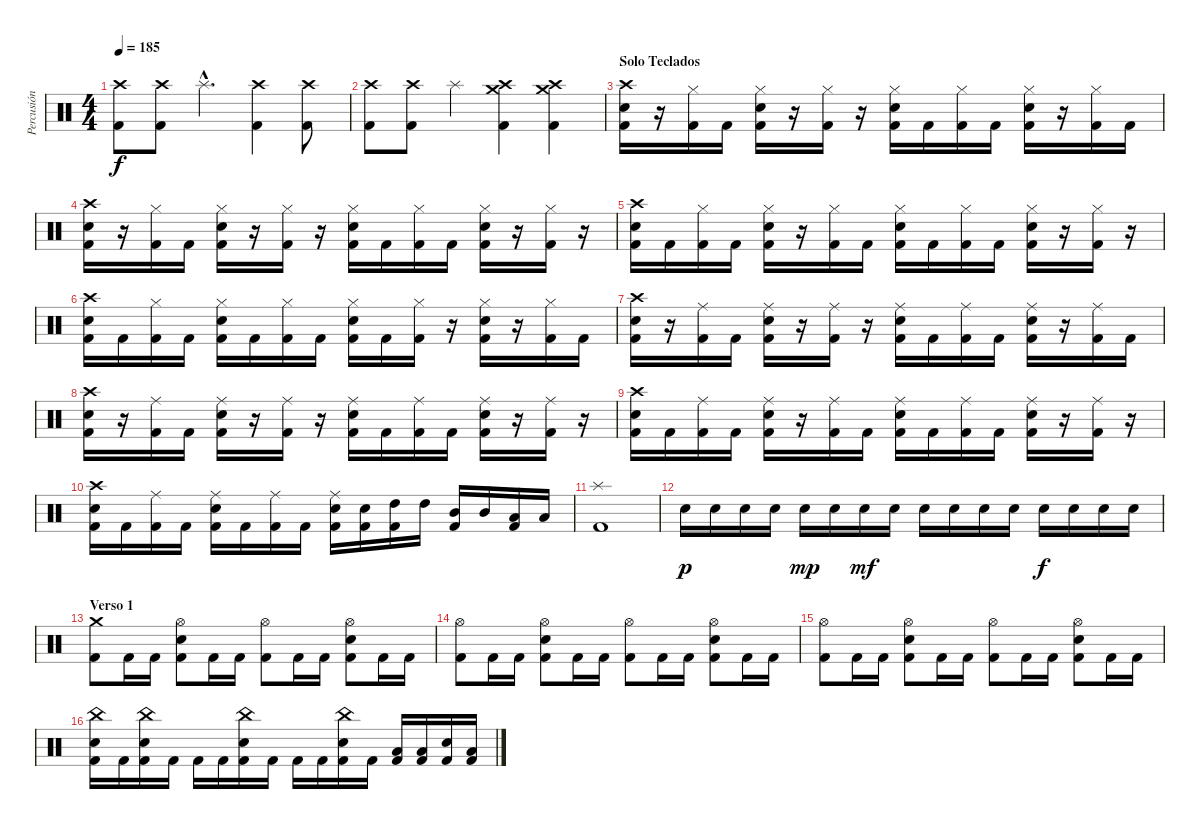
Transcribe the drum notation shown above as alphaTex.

\track ("Percusión" "Percusión") {instrument percussion}
\staff {score}
\articulation defaults
\ts (4 4)
\tempo 185
\clef neutral
\ks c
("Crash high (hit)" "Kick (hit) 2").8{dy f} ("Crash high (hit)" "Kick (hit) 2").8 "Splash (hit)"{hac}.4{d} ("Crash high (hit)" "Kick (hit) 2").4 ("Crash high (hit)" "Kick (hit) 2").8 |
("Crash high (hit)" "Kick (hit) 2").8 ("Crash high (hit)" "Kick (hit) 2").8 "Splash (hit)".4 ("Crash medium (hit)" "Crash high (hit)" "Kick (hit) 2").4 ("Crash medium (hit)" "Crash high (hit)" "Kick (hit) 2").4 |
\section ("" "Solo Teclados")
("Crash high (hit)" "Snare (hit) 2" "Kick (hit) 2").16 r.16 ("Hi-Hat (closed)" "Kick (hit) 2").16 "Kick (hit) 2".16 ("Hi-Hat (closed)" "Snare (hit) 2" "Kick (hit) 2").16 r.16 ("Hi-Hat (closed)" "Kick (hit) 2").16 r.16 ("Hi-Hat (closed)" "Snare (hit) 2" "Kick (hit) 2").16 "Kick (hit) 2".16 ("Hi-Hat (closed)" "Kick (hit) 2").16 "Kick (hit) 2".16 ("Hi-Hat (closed)" "Snare (hit) 2" "Kick (hit) 2").16 r.16 ("Hi-Hat (closed)" "Kick (hit) 2").16 "Kick (hit) 2".16 |
("Crash high (hit)" "Snare (hit) 2" "Kick (hit) 2").16 r.16 ("Hi-Hat (closed)" "Kick (hit) 2").16 "Kick (hit) 2".16 ("Hi-Hat (closed)" "Snare (hit) 2" "Kick (hit) 2").16 r.16 ("Hi-Hat (closed)" "Kick (hit) 2").16 r.16 ("Hi-Hat (closed)" "Snare (hit) 2" "Kick (hit) 2").16 "Kick (hit) 2".16 ("Hi-Hat (closed)" "Kick (hit) 2").16 "Kick (hit) 2".16 ("Hi-Hat (closed)" "Snare (hit) 2" "Kick (hit) 2").16 r.16 ("Hi-Hat (closed)" "Kick (hit) 2").16 r.16 |
("Crash high (hit)" "Snare (hit) 2" "Kick (hit) 2").16 "Kick (hit) 2".16 ("Hi-Hat (closed)" "Kick (hit) 2").16 "Kick (hit) 2".16 ("Hi-Hat (closed)" "Snare (hit) 2" "Kick (hit) 2").16 r.16 ("Hi-Hat (closed)" "Kick (hit) 2").16 "Kick (hit) 2".16 ("Hi-Hat (closed)" "Snare (hit) 2" "Kick (hit) 2").16 "Kick (hit) 2".16 ("Hi-Hat (closed)" "Kick (hit) 2").16 "Kick (hit) 2".16 ("Hi-Hat (closed)" "Snare (hit) 2" "Kick (hit) 2").16 r.16 ("Hi-Hat (closed)" "Kick (hit) 2").16 r.16 |
("Crash high (hit)" "Snare (hit) 2" "Kick (hit) 2").16 "Kick (hit) 2".16 ("Hi-Hat (closed)" "Kick (hit) 2").16 "Kick (hit) 2".16 ("Hi-Hat (closed)" "Snare (hit) 2" "Kick (hit) 2").16 "Kick (hit) 2".16 ("Hi-Hat (closed)" "Kick (hit) 2").16 "Kick (hit) 2".16 ("Hi-Hat (closed)" "Snare (hit) 2" "Kick (hit) 2").16 "Kick (hit) 2".16 ("Hi-Hat (closed)" "Kick (hit) 2").16 r.16 ("Hi-Hat (closed)" "Snare (hit) 2" "Kick (hit) 2").16 r.16 ("Hi-Hat (closed)" "Kick (hit) 2").16 "Kick (hit) 2".16 |
("Crash high (hit)" "Snare (hit) 2" "Kick (hit) 2").16 r.16 ("Ride (middle)" "Kick (hit) 2").16 "Kick (hit) 2".16 ("Ride (middle)" "Snare (hit) 2" "Kick (hit) 2").16 r.16 ("Ride (middle)" "Kick (hit) 2").16 r.16 ("Ride (middle)" "Snare (hit) 2" "Kick (hit) 2").16 "Kick (hit) 2".16 ("Ride (middle)" "Kick (hit) 2").16 "Kick (hit) 2".16 ("Ride (middle)" "Snare (hit) 2" "Kick (hit) 2").16 r.16 ("Ride (middle)" "Kick (hit) 2").16 "Kick (hit) 2".16 |
("Crash high (hit)" "Snare (hit) 2" "Kick (hit) 2").16 r.16 ("Ride (middle)" "Kick (hit) 2").16 "Kick (hit) 2".16 ("Ride (middle)" "Snare (hit) 2" "Kick (hit) 2").16 r.16 ("Ride (middle)" "Kick (hit) 2").16 r.16 ("Ride (middle)" "Snare (hit) 2" "Kick (hit) 2").16 "Kick (hit) 2".16 ("Ride (middle)" "Kick (hit) 2").16 "Kick (hit) 2".16 ("Ride (middle)" "Snare (hit) 2" "Kick (hit) 2").16 r.16 ("Ride (middle)" "Kick (hit) 2").16 r.16 |
("Crash high (hit)" "Snare (hit) 2" "Kick (hit) 2").16 "Kick (hit) 2".16 ("Ride (middle)" "Kick (hit) 2").16 "Kick (hit) 2".16 ("Ride (middle)" "Snare (hit) 2" "Kick (hit) 2").16 r.16 ("Ride (middle)" "Kick (hit) 2").16 "Kick (hit) 2".16 ("Ride (middle)" "Snare (hit) 2" "Kick (hit) 2").16 "Kick (hit) 2".16 ("Ride (middle)" "Kick (hit) 2").16 "Kick (hit) 2".16 ("Ride (middle)" "Snare (hit) 2" "Kick (hit) 2").16 r.16 ("Ride (middle)" "Kick (hit) 2").16 r.16 |
("Crash high (hit)" "Snare (hit) 2" "Kick (hit) 2").16 "Kick (hit) 2".16 ("Ride (middle)" "Kick (hit) 2").16 "Kick (hit) 2".16 ("Ride (middle)" "Snare (hit) 2" "Kick (hit) 2").16 "Kick (hit) 2".16 ("Ride (middle)" "Kick (hit) 2").16 "Kick (hit) 2".16 ("Ride (middle)" "Snare (hit) 2" "Kick (hit) 2").16 ("Snare (hit) 2" "Kick (hit) 2").16 ("High Tom (hit)" "Kick (hit) 2").16 "High Tom (hit)".16 ("Mid Tom (hit)" "Kick (hit) 2").16 "Mid Tom (hit)".16 ("Low Tom (hit)" "Kick (hit) 2").16 "Low Tom (hit)".16 |
("Splash (hit)" "Kick (hit) 2").1 |
"Snare (hit) 2".16{dy p} "Snare (hit) 2".16 "Snare (hit) 2".16 "Snare (hit) 2".16 "Snare (hit) 2".16{dy mp} "Snare (hit) 2".16 "Snare (hit) 2".16{dy mf} "Snare (hit) 2".16 "Snare (hit) 2".16 "Snare (hit) 2".16 "Snare (hit) 2".16 "Snare (hit) 2".16 "Snare (hit) 2".16{dy f} "Snare (hit) 2".16 "Snare (hit) 2".16 "Snare (hit) 2".16 |
\section ("" "Verso 1")
("Crash medium (hit)" "Kick (hit) 2").8 "Kick (hit) 2".16 "Kick (hit) 2".16 ("Hi-Hat (open)" "Snare (hit) 2" "Kick (hit) 2").8 "Kick (hit) 2".16 "Kick (hit) 2".16 ("Hi-Hat (open)" "Kick (hit) 2").8 "Kick (hit) 2".16 "Kick (hit) 2".16 ("Hi-Hat (open)" "Snare (hit) 2" "Kick (hit) 2").8 "Kick (hit) 2".16 "Kick (hit) 2".16 |
("Hi-Hat (open)" "Kick (hit) 2").8 "Kick (hit) 2".16 "Kick (hit) 2".16 ("Hi-Hat (open)" "Snare (hit) 2" "Kick (hit) 2").8 "Kick (hit) 2".16 "Kick (hit) 2".16 ("Hi-Hat (open)" "Kick (hit) 2").8 "Kick (hit) 2".16 "Kick (hit) 2".16 ("Hi-Hat (open)" "Snare (hit) 2" "Kick (hit) 2").8 "Kick (hit) 2".16 "Kick (hit) 2".16 |
("Hi-Hat (open)" "Kick (hit) 2").8 "Kick (hit) 2".16 "Kick (hit) 2".16 ("Hi-Hat (open)" "Snare (hit) 2" "Kick (hit) 2").8 "Kick (hit) 2".16 "Kick (hit) 2".16 ("Hi-Hat (open)" "Kick (hit) 2").8 "Kick (hit) 2".16 "Kick (hit) 2".16 ("Hi-Hat (open)" "Snare (hit) 2" "Kick (hit) 2").8 "Kick (hit) 2".16 "Kick (hit) 2".16 |
("China (hit)" "Snare (hit) 2" "Kick (hit) 2").16 "Kick (hit) 2".16 ("China (hit)" "Snare (hit) 2" "Kick (hit) 2").16 "Kick (hit) 2".16 "Kick (hit) 2".16 "Kick (hit) 2".16 ("China (hit)" "Snare (hit) 2" "Kick (hit) 2").16 "Kick (hit) 2".16 "Kick (hit) 2".16 "Kick (hit) 2".16 ("China (hit)" "Snare (hit) 2" "Kick (hit) 2").16 "Kick (hit) 2".16 ("Low Tom (hit)" "Kick (hit) 2").16 ("Low Tom (hit)" "Kick (hit) 2").16 ("Snare (hit) 2" "Kick (hit) 2").16 ("Low Tom (hit)" "Kick (hit) 2").16
